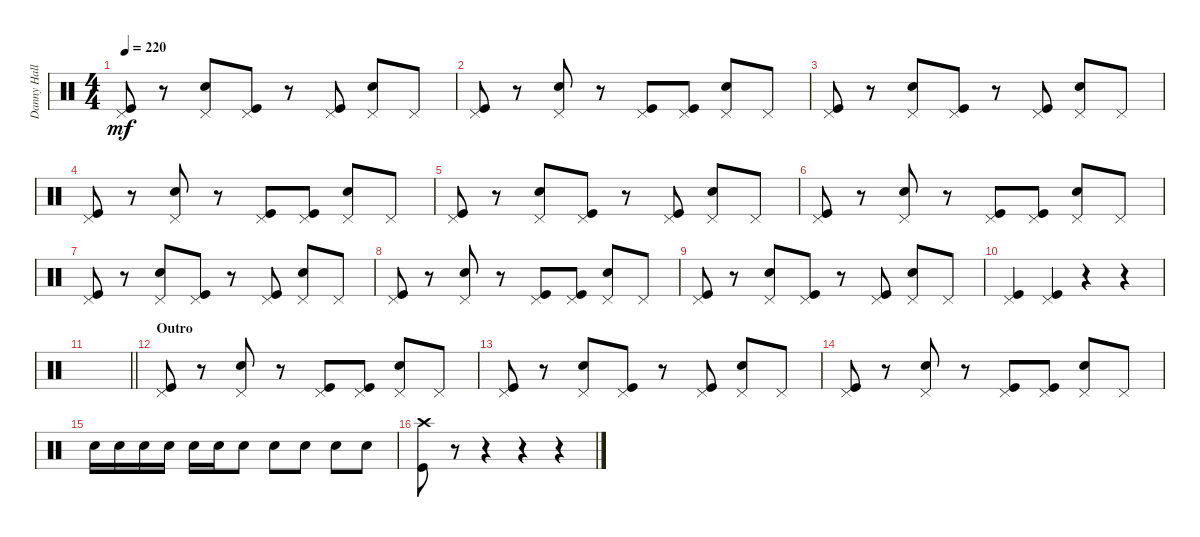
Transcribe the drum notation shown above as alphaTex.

\track ("Danny Hall" "Danny Hall") {instrument percussion}
\staff {score}
\articulation defaults
\ts (4 4)
\tempo 220
\clef neutral
\ks c
("Pedal Hi-Hat (hit)" "Kick (hit)").8{dy mf} r.8 ("Pedal Hi-Hat (hit)" "Snare (hit) 2").8 ("Pedal Hi-Hat (hit)" "Kick (hit)").8 r.8 ("Pedal Hi-Hat (hit)" "Kick (hit)").8 ("Pedal Hi-Hat (hit)" "Snare (hit) 2").8 "Pedal Hi-Hat (hit)".8 |
("Pedal Hi-Hat (hit)" "Kick (hit)").8 r.8 ("Pedal Hi-Hat (hit)" "Snare (hit) 2").8 r.8 ("Pedal Hi-Hat (hit)" "Kick (hit)").8 ("Pedal Hi-Hat (hit)" "Kick (hit)").8 ("Pedal Hi-Hat (hit)" "Snare (hit) 2").8 "Pedal Hi-Hat (hit)".8 |
("Pedal Hi-Hat (hit)" "Kick (hit)").8 r.8 ("Pedal Hi-Hat (hit)" "Snare (hit) 2").8 ("Pedal Hi-Hat (hit)" "Kick (hit)").8 r.8 ("Pedal Hi-Hat (hit)" "Kick (hit)").8 ("Pedal Hi-Hat (hit)" "Snare (hit) 2").8 "Pedal Hi-Hat (hit)".8 |
("Pedal Hi-Hat (hit)" "Kick (hit)").8 r.8 ("Pedal Hi-Hat (hit)" "Snare (hit) 2").8 r.8 ("Pedal Hi-Hat (hit)" "Kick (hit)").8 ("Pedal Hi-Hat (hit)" "Kick (hit)").8 ("Pedal Hi-Hat (hit)" "Snare (hit) 2").8 "Pedal Hi-Hat (hit)".8 |
("Pedal Hi-Hat (hit)" "Kick (hit)").8 r.8 ("Pedal Hi-Hat (hit)" "Snare (hit) 2").8 ("Pedal Hi-Hat (hit)" "Kick (hit)").8 r.8 ("Pedal Hi-Hat (hit)" "Kick (hit)").8 ("Pedal Hi-Hat (hit)" "Snare (hit) 2").8 "Pedal Hi-Hat (hit)".8 |
("Pedal Hi-Hat (hit)" "Kick (hit)").8 r.8 ("Pedal Hi-Hat (hit)" "Snare (hit) 2").8 r.8 ("Pedal Hi-Hat (hit)" "Kick (hit)").8 ("Pedal Hi-Hat (hit)" "Kick (hit)").8 ("Pedal Hi-Hat (hit)" "Snare (hit) 2").8 "Pedal Hi-Hat (hit)".8 |
("Pedal Hi-Hat (hit)" "Kick (hit)").8 r.8 ("Pedal Hi-Hat (hit)" "Snare (hit) 2").8 ("Pedal Hi-Hat (hit)" "Kick (hit)").8 r.8 ("Pedal Hi-Hat (hit)" "Kick (hit)").8 ("Pedal Hi-Hat (hit)" "Snare (hit) 2").8 "Pedal Hi-Hat (hit)".8 |
("Pedal Hi-Hat (hit)" "Kick (hit)").8 r.8 ("Pedal Hi-Hat (hit)" "Snare (hit) 2").8 r.8 ("Pedal Hi-Hat (hit)" "Kick (hit)").8 ("Pedal Hi-Hat (hit)" "Kick (hit)").8 ("Pedal Hi-Hat (hit)" "Snare (hit) 2").8 "Pedal Hi-Hat (hit)".8 |
("Pedal Hi-Hat (hit)" "Kick (hit)").8 r.8 ("Pedal Hi-Hat (hit)" "Snare (hit) 2").8 ("Pedal Hi-Hat (hit)" "Kick (hit)").8 r.8 ("Pedal Hi-Hat (hit)" "Kick (hit)").8 ("Pedal Hi-Hat (hit)" "Snare (hit) 2").8 "Pedal Hi-Hat (hit)".8 |
("Pedal Hi-Hat (hit)" "Kick (hit)").4 ("Pedal Hi-Hat (hit)" "Kick (hit)").4 r.4 r.4 |
\barLineRight lightlight
|
\section ("" "Outro")
("Pedal Hi-Hat (hit)" "Kick (hit)").8 r.8 ("Pedal Hi-Hat (hit)" "Snare (hit) 2").8 r.8 ("Pedal Hi-Hat (hit)" "Kick (hit)").8 ("Pedal Hi-Hat (hit)" "Kick (hit)").8 ("Pedal Hi-Hat (hit)" "Snare (hit) 2").8 "Pedal Hi-Hat (hit)".8 |
("Pedal Hi-Hat (hit)" "Kick (hit)").8 r.8 ("Pedal Hi-Hat (hit)" "Snare (hit) 2").8 ("Pedal Hi-Hat (hit)" "Kick (hit)").8 r.8 ("Pedal Hi-Hat (hit)" "Kick (hit)").8 ("Pedal Hi-Hat (hit)" "Snare (hit) 2").8 "Pedal Hi-Hat (hit)".8 |
("Pedal Hi-Hat (hit)" "Kick (hit)").8 r.8 ("Pedal Hi-Hat (hit)" "Snare (hit) 2").8 r.8 ("Pedal Hi-Hat (hit)" "Kick (hit)").8 ("Pedal Hi-Hat (hit)" "Kick (hit)").8 ("Pedal Hi-Hat (hit)" "Snare (hit) 2").8 "Pedal Hi-Hat (hit)".8 |
"Snare (hit) 2".16 "Snare (hit) 2".16 "Snare (hit) 2".16 "Snare (hit) 2".16 "Snare (hit) 2".16 "Snare (hit) 2".16 "Snare (hit) 2".8 "Snare (hit) 2".8 "Snare (hit) 2".8 "Snare (hit) 2".8 "Snare (hit) 2".8 |
("Crash high (hit)" "Kick (hit)").8 r.8 r.4 r.4 r.4
